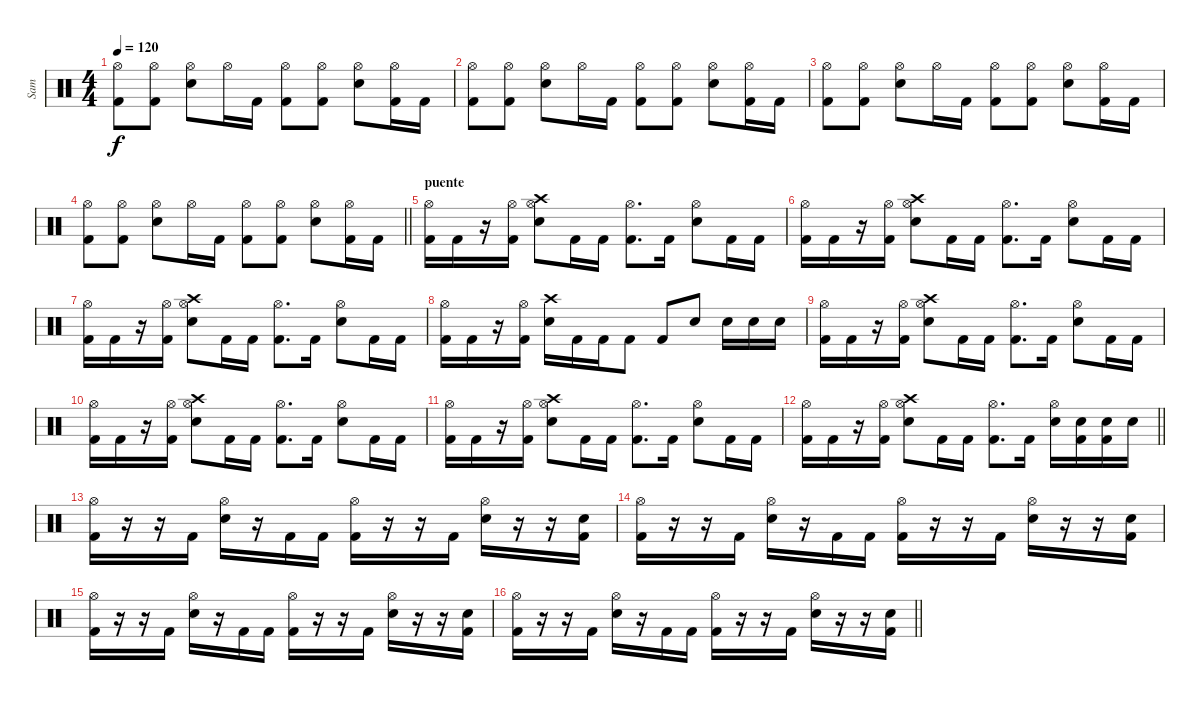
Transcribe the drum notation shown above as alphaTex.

\track ("Sam" "Sam") {instrument percussion}
\staff {score}
\articulation defaults
\ts (4 4)
\tempo 120
\clef neutral
\ks c
("Hi-Hat (open)" "Kick (hit) 2").8{dy f} ("Hi-Hat (open)" "Kick (hit) 2").8 ("Hi-Hat (open)" "Electric Snare (hit)").8 "Hi-Hat (open)".16 "Kick (hit) 2".16 ("Hi-Hat (open)" "Kick (hit) 2").8 ("Hi-Hat (open)" "Kick (hit) 2").8 ("Hi-Hat (open)" "Electric Snare (hit)").8 ("Hi-Hat (open)" "Kick (hit) 2").16 "Kick (hit) 2".16 |
("Hi-Hat (open)" "Kick (hit) 2").8 ("Hi-Hat (open)" "Kick (hit) 2").8 ("Hi-Hat (open)" "Electric Snare (hit)").8 "Hi-Hat (open)".16 "Kick (hit) 2".16 ("Hi-Hat (open)" "Kick (hit) 2").8 ("Hi-Hat (open)" "Kick (hit) 2").8 ("Hi-Hat (open)" "Electric Snare (hit)").8 ("Hi-Hat (open)" "Kick (hit) 2").16 "Kick (hit) 2".16 |
("Hi-Hat (open)" "Kick (hit) 2").8 ("Hi-Hat (open)" "Kick (hit) 2").8 ("Hi-Hat (open)" "Electric Snare (hit)").8 "Hi-Hat (open)".16 "Kick (hit) 2".16 ("Hi-Hat (open)" "Kick (hit) 2").8 ("Hi-Hat (open)" "Kick (hit) 2").8 ("Hi-Hat (open)" "Electric Snare (hit)").8 ("Hi-Hat (open)" "Kick (hit) 2").16 "Kick (hit) 2".16 |
\barLineRight lightlight
("Hi-Hat (open)" "Kick (hit) 2").8 ("Hi-Hat (open)" "Kick (hit) 2").8 ("Hi-Hat (open)" "Electric Snare (hit)").8 "Hi-Hat (open)".16 "Kick (hit) 2".16 ("Hi-Hat (open)" "Kick (hit) 2").8 ("Hi-Hat (open)" "Kick (hit) 2").8 ("Hi-Hat (open)" "Electric Snare (hit)").8 ("Hi-Hat (open)" "Kick (hit) 2").16 "Kick (hit) 2".16 |
\section ("" "puente")
("Hi-Hat (open)" "Kick (hit) 2").16 "Kick (hit) 2".16 r.16 ("Hi-Hat (open)" "Kick (hit) 2").16 ("Crash high (hit)" "Hi-Hat (open)" "Electric Snare (hit)").8 "Kick (hit) 2".16 "Kick (hit) 2".16 ("Hi-Hat (open)" "Kick (hit) 2").8{d} "Kick (hit) 2".16 ("Hi-Hat (open)" "Electric Snare (hit)").8 "Kick (hit) 2".16 "Kick (hit) 2".16 |
("Hi-Hat (open)" "Kick (hit) 2").16 "Kick (hit) 2".16 r.16 ("Hi-Hat (open)" "Kick (hit) 2").16 ("Crash high (hit)" "Hi-Hat (open)" "Electric Snare (hit)").8 "Kick (hit) 2".16 "Kick (hit) 2".16 ("Hi-Hat (open)" "Kick (hit) 2").8{d} "Kick (hit) 2".16 ("Hi-Hat (open)" "Electric Snare (hit)").8 "Kick (hit) 2".16 "Kick (hit) 2".16 |
("Hi-Hat (open)" "Kick (hit) 2").16 "Kick (hit) 2".16 r.16 ("Hi-Hat (open)" "Kick (hit) 2").16 ("Crash high (hit)" "Hi-Hat (open)" "Electric Snare (hit)").8 "Kick (hit) 2".16 "Kick (hit) 2".16 ("Hi-Hat (open)" "Kick (hit) 2").8{d} "Kick (hit) 2".16 ("Hi-Hat (open)" "Electric Snare (hit)").8 "Kick (hit) 2".16 "Kick (hit) 2".16 |
("Hi-Hat (open)" "Kick (hit) 2").16 "Kick (hit) 2".16 r.16 ("Hi-Hat (open)" "Kick (hit) 2").16 ("Crash high (hit)" "Electric Snare (hit)").16 "Kick (hit) 2".16 "Kick (hit) 2".16 "Kick (hit) 2".8 "Kick (hit) 2".8 "Electric Snare (hit)".8 "Electric Snare (hit)".16 "Electric Snare (hit)".16 "Electric Snare (hit)".16 |
("Hi-Hat (open)" "Kick (hit) 2").16 "Kick (hit) 2".16 r.16 ("Hi-Hat (open)" "Kick (hit) 2").16 ("Crash high (hit)" "Hi-Hat (open)" "Electric Snare (hit)").8 "Kick (hit) 2".16 "Kick (hit) 2".16 ("Hi-Hat (open)" "Kick (hit) 2").8{d} "Kick (hit) 2".16 ("Hi-Hat (open)" "Electric Snare (hit)").8 "Kick (hit) 2".16 "Kick (hit) 2".16 |
("Hi-Hat (open)" "Kick (hit) 2").16 "Kick (hit) 2".16 r.16 ("Hi-Hat (open)" "Kick (hit) 2").16 ("Crash high (hit)" "Hi-Hat (open)" "Electric Snare (hit)").8 "Kick (hit) 2".16 "Kick (hit) 2".16 ("Hi-Hat (open)" "Kick (hit) 2").8{d} "Kick (hit) 2".16 ("Hi-Hat (open)" "Electric Snare (hit)").8 "Kick (hit) 2".16 "Kick (hit) 2".16 |
("Hi-Hat (open)" "Kick (hit) 2").16 "Kick (hit) 2".16 r.16 ("Hi-Hat (open)" "Kick (hit) 2").16 ("Crash high (hit)" "Hi-Hat (open)" "Electric Snare (hit)").8 "Kick (hit) 2".16 "Kick (hit) 2".16 ("Hi-Hat (open)" "Kick (hit) 2").8{d} "Kick (hit) 2".16 ("Hi-Hat (open)" "Electric Snare (hit)").8 "Kick (hit) 2".16 "Kick (hit) 2".16 |
\barLineRight lightlight
("Hi-Hat (open)" "Kick (hit) 2").16 "Kick (hit) 2".16 r.16 ("Hi-Hat (open)" "Kick (hit) 2").16 ("Crash high (hit)" "Hi-Hat (open)" "Electric Snare (hit)").8 "Kick (hit) 2".16 "Kick (hit) 2".16 ("Hi-Hat (open)" "Kick (hit) 2").8{d} "Kick (hit) 2".16 ("Hi-Hat (open)" "Electric Snare (hit)").16 ("Electric Snare (hit)" "Kick (hit) 2").16 ("Electric Snare (hit)" "Kick (hit) 2").16 "Electric Snare (hit)".16 |
("Hi-Hat (open)" "Kick (hit) 2").16 r.16 r.16 "Kick (hit) 2".16 ("Hi-Hat (open)" "Electric Snare (hit)").16 r.16 "Kick (hit) 2".16 "Kick (hit) 2".16 ("Hi-Hat (open)" "Kick (hit) 2").16 r.16 r.16 "Kick (hit) 2".16 ("Hi-Hat (open)" "Electric Snare (hit)").16 r.16 r.16 ("Electric Snare (hit)" "Kick (hit) 2").16 |
("Hi-Hat (open)" "Kick (hit) 2").16 r.16 r.16 "Kick (hit) 2".16 ("Hi-Hat (open)" "Electric Snare (hit)").16 r.16 "Kick (hit) 2".16 "Kick (hit) 2".16 ("Hi-Hat (open)" "Kick (hit) 2").16 r.16 r.16 "Kick (hit) 2".16 ("Hi-Hat (open)" "Electric Snare (hit)").16 r.16 r.16 ("Electric Snare (hit)" "Kick (hit) 2").16 |
("Hi-Hat (open)" "Kick (hit) 2").16 r.16 r.16 "Kick (hit) 2".16 ("Hi-Hat (open)" "Electric Snare (hit)").16 r.16 "Kick (hit) 2".16 "Kick (hit) 2".16 ("Hi-Hat (open)" "Kick (hit) 2").16 r.16 r.16 "Kick (hit) 2".16 ("Hi-Hat (open)" "Electric Snare (hit)").16 r.16 r.16 ("Electric Snare (hit)" "Kick (hit) 2").16 |
\barLineRight lightlight
("Hi-Hat (open)" "Kick (hit) 2").16 r.16 r.16 "Kick (hit) 2".16 ("Hi-Hat (open)" "Electric Snare (hit)").16 r.16 "Kick (hit) 2".16 "Kick (hit) 2".16 ("Hi-Hat (open)" "Kick (hit) 2").16 r.16 r.16 "Kick (hit) 2".16 ("Hi-Hat (open)" "Electric Snare (hit)").16 r.16 r.16 ("Electric Snare (hit)" "Kick (hit) 2").16
